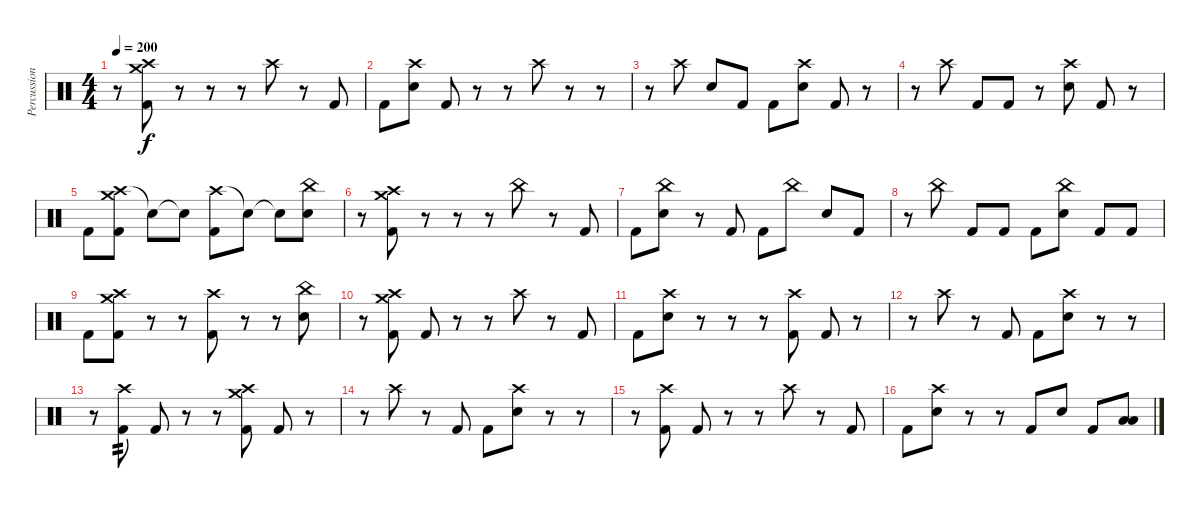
\track ("Percussion" "Percussion") {instrument percussion}
\staff {score}
\articulation defaults
\ts (4 4)
\tempo 200
\clef neutral
\ks c
r.8{dy f} ("Kick (hit) 2" "Crash medium (hit)" "Crash high (hit)").8 r.8 r.8 r.8 "Crash high (hit)".8 r.8 "Kick (hit) 2".8 |
"Kick (hit) 2".8 ("Snare (hit) 2" "Crash high (hit)").8 "Kick (hit) 2".8 r.8 r.8 "Crash high (hit)".8 r.8 r.8 |
r.8 "Crash high (hit)".8 "Snare (hit) 2".8 "Kick (hit) 2".8 "Kick (hit) 2".8 ("Crash high (hit)" "Snare (hit) 2").8 "Kick (hit) 2".8 r.8 |
r.8 "Crash high (hit)".8 "Kick (hit) 2".8 "Kick (hit) 2".8 r.8 ("Snare (hit) 2" "Crash high (hit)").8 "Kick (hit) 2".8 r.8 |
"Kick (hit) 2".8 ("Crash high (hit)" "Kick (hit) 2" "Crash medium (hit)").8 "Snare (hit)"{t}.8 "Snare (hit)"{t}.8 ("Crash high (hit)" "Kick (hit) 2").8 "Snare (hit)"{t}.8 "Snare (hit)"{t}.8 ("Snare (hit) 2" "China (hit)").8 |
r.8 ("Kick (hit) 2" "Crash medium (hit)" "Crash high (hit)").8 r.8 r.8 r.8 "China (hit)".8 r.8 "Kick (hit) 2".8 |
"Kick (hit) 2".8 ("Snare (hit) 2" "China (hit)").8 r.8 "Kick (hit) 2".8 "Kick (hit) 2".8 "China (hit)".8 "Snare (hit) 2".8 "Kick (hit) 2".8 |
r.8 "China (hit)".8 "Kick (hit) 2".8 "Kick (hit) 2".8 "Kick (hit) 2".8 ("Snare (hit) 2" "China (hit)").8 "Kick (hit) 2".8 "Kick (hit) 2".8 |
"Kick (hit) 2".8 ("Kick (hit) 2" "Crash high (hit)" "Crash medium (hit)").8 r.8 r.8 ("Kick (hit) 2" "Crash high (hit)").8 r.8 r.8 ("Snare (hit) 2" "China (hit)").8 |
r.8 ("Crash high (hit)" "Kick (hit) 2" "Crash medium (hit)").8 "Kick (hit) 2".8 r.8 r.8 "Crash high (hit)".8 r.8 "Kick (hit) 2".8 |
"Kick (hit) 2".8 ("Crash high (hit)" "Snare (hit) 2").8 r.8 r.8 r.8 ("Kick (hit) 2" "Crash high (hit)").8 "Kick (hit) 2".8 r.8 |
r.8 "Crash high (hit)".8 r.8 "Kick (hit) 2".8 "Kick (hit) 2".8 ("Snare (hit) 2" "Crash high (hit)").8 r.8 r.8 |
r.8 ("Kick (hit) 2" "Crash high (hit)").8{tp 2} "Kick (hit) 2".8 r.8 r.8 ("Kick (hit) 2" "Crash high (hit)" "Crash medium (hit)").8 "Kick (hit) 2".8 r.8 |
r.8 "Crash high (hit)".8 r.8 "Kick (hit) 2".8 "Kick (hit) 2".8 ("Snare (hit) 2" "Crash high (hit)").8 r.8 r.8 |
r.8 ("Kick (hit) 2" "Crash high (hit)").8 "Kick (hit) 2".8 r.8 r.8 "Crash high (hit)".8 r.8 "Kick (hit) 2".8 |
"Kick (hit) 2".8 ("Snare (hit) 2" "Crash high (hit)").8 r.8 r.8 "Kick (hit) 2".8 "Snare (hit) 2".8 "Kick (hit) 2".8 ("Low Tom (hit)" "Low Floor Tom (hit)").8
